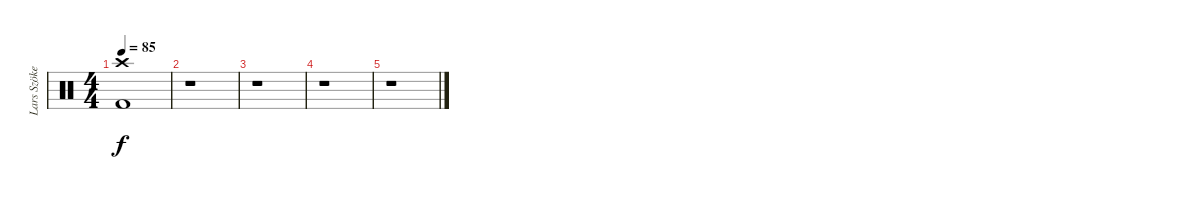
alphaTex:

\track ("Lars Szöke" "Lars Szöke") {instrument percussion}
\staff {score}
\articulation defaults
\ts (4 4)
\tempo 85
\clef neutral
\ks c
("Crash high (hit)" "Kick (hit) 2").1{dy f} |
r.1 |
r.1 |
r.1 |
r.1
